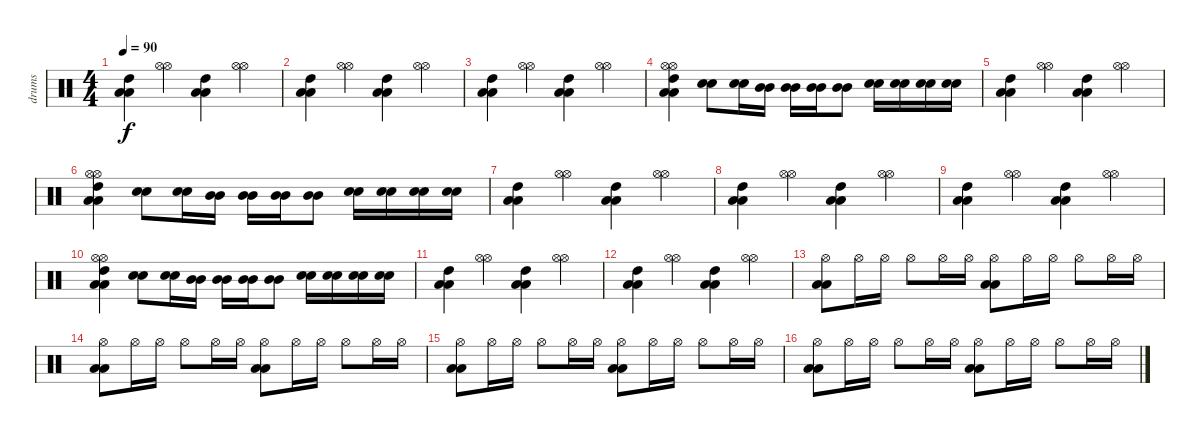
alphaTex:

\track ("drums" "drums") {instrument percussion}
\staff {score}
\articulation defaults
\ts (4 4)
\tempo 90
\clef neutral
\ks c
("High Tom (hit)" "Low Floor Tom (hit)" "Low Floor Tom (hit)").4{dy f} ("Hi-Hat (open)" "Hi-Hat (open)").4 ("High Tom (hit)" "Low Floor Tom (hit)" "Low Floor Tom (hit)").4 ("Hi-Hat (open)" "Hi-Hat (open)").4 |
("High Tom (hit)" "Low Floor Tom (hit)" "Low Floor Tom (hit)").4 ("Hi-Hat (open)" "Hi-Hat (open)").4 ("High Tom (hit)" "Low Floor Tom (hit)" "Low Floor Tom (hit)").4 ("Hi-Hat (open)" "Hi-Hat (open)").4 |
("High Tom (hit)" "Low Floor Tom (hit)" "Low Floor Tom (hit)").4 ("Hi-Hat (open)" "Hi-Hat (open)").4 ("High Tom (hit)" "Low Floor Tom (hit)" "Low Floor Tom (hit)").4 ("Hi-Hat (open)" "Hi-Hat (open)").4 |
("Hi-Hat (open)" "Hi-Hat (open)" "High Tom (hit)" "Low Floor Tom (hit)" "Low Floor Tom (hit)").4 ("Electric Snare (hit)" "Electric Snare (hit)").8 ("Electric Snare (hit)" "Electric Snare (hit)").16 ("Mid Tom (hit)" "Mid Tom (hit)").16 ("Mid Tom (hit)" "Mid Tom (hit)").16 ("Mid Tom (hit)" "Mid Tom (hit)").16 ("Mid Tom (hit)" "Mid Tom (hit)").8 ("Electric Snare (hit)" "Electric Snare (hit)").16 ("Electric Snare (hit)" "Electric Snare (hit)").16 ("Electric Snare (hit)" "Electric Snare (hit)").16 ("Electric Snare (hit)" "Electric Snare (hit)").16 |
("High Tom (hit)" "Low Floor Tom (hit)" "Low Floor Tom (hit)").4 ("Hi-Hat (open)" "Hi-Hat (open)").4 ("High Tom (hit)" "Low Floor Tom (hit)" "Low Floor Tom (hit)").4 ("Hi-Hat (open)" "Hi-Hat (open)").4 |
("Hi-Hat (open)" "Hi-Hat (open)" "High Tom (hit)" "Low Floor Tom (hit)" "Low Floor Tom (hit)").4 ("Electric Snare (hit)" "Electric Snare (hit)").8 ("Electric Snare (hit)" "Electric Snare (hit)").16 ("Mid Tom (hit)" "Mid Tom (hit)").16 ("Mid Tom (hit)" "Mid Tom (hit)").16 ("Mid Tom (hit)" "Mid Tom (hit)").16 ("Mid Tom (hit)" "Mid Tom (hit)").8 ("Electric Snare (hit)" "Electric Snare (hit)").16 ("Electric Snare (hit)" "Electric Snare (hit)").16 ("Electric Snare (hit)" "Electric Snare (hit)").16 ("Electric Snare (hit)" "Electric Snare (hit)").16 |
("High Tom (hit)" "Low Floor Tom (hit)" "Low Floor Tom (hit)").4 ("Hi-Hat (open)" "Hi-Hat (open)").4 ("High Tom (hit)" "Low Floor Tom (hit)" "Low Floor Tom (hit)").4 ("Hi-Hat (open)" "Hi-Hat (open)").4 |
("High Tom (hit)" "Low Floor Tom (hit)" "Low Floor Tom (hit)").4 ("Hi-Hat (open)" "Hi-Hat (open)").4 ("High Tom (hit)" "Low Floor Tom (hit)" "Low Floor Tom (hit)").4 ("Hi-Hat (open)" "Hi-Hat (open)").4 |
("High Tom (hit)" "Low Floor Tom (hit)" "Low Floor Tom (hit)").4 ("Hi-Hat (open)" "Hi-Hat (open)").4 ("High Tom (hit)" "Low Floor Tom (hit)" "Low Floor Tom (hit)").4 ("Hi-Hat (open)" "Hi-Hat (open)").4 |
("Hi-Hat (open)" "Hi-Hat (open)" "High Tom (hit)" "Low Floor Tom (hit)" "Low Floor Tom (hit)").4 ("Electric Snare (hit)" "Electric Snare (hit)").8 ("Electric Snare (hit)" "Electric Snare (hit)").16 ("Mid Tom (hit)" "Mid Tom (hit)").16 ("Mid Tom (hit)" "Mid Tom (hit)").16 ("Mid Tom (hit)" "Mid Tom (hit)").16 ("Mid Tom (hit)" "Mid Tom (hit)").8 ("Electric Snare (hit)" "Electric Snare (hit)").16 ("Electric Snare (hit)" "Electric Snare (hit)").16 ("Electric Snare (hit)" "Electric Snare (hit)").16 ("Electric Snare (hit)" "Electric Snare (hit)").16 |
("High Tom (hit)" "Low Floor Tom (hit)" "Low Floor Tom (hit)").4 ("Hi-Hat (open)" "Hi-Hat (open)").4 ("High Tom (hit)" "Low Floor Tom (hit)" "Low Floor Tom (hit)").4 ("Hi-Hat (open)" "Hi-Hat (open)").4 |
("High Tom (hit)" "Low Floor Tom (hit)" "Low Floor Tom (hit)").4 ("Hi-Hat (open)" "Hi-Hat (open)").4 ("High Tom (hit)" "Low Floor Tom (hit)" "Low Floor Tom (hit)").4 ("Hi-Hat (open)" "Hi-Hat (open)").4 |
("Hi-Hat (open)" "Low Floor Tom (hit)" "Low Floor Tom (hit)").8 "Hi-Hat (open)".16 "Hi-Hat (open)".16 "Hi-Hat (open)".8 "Hi-Hat (open)".16 "Hi-Hat (open)".16 ("Hi-Hat (open)" "Low Floor Tom (hit)" "Low Floor Tom (hit)").8 "Hi-Hat (open)".16 "Hi-Hat (open)".16 "Hi-Hat (open)".8 "Hi-Hat (open)".16 "Hi-Hat (open)".16 |
("Hi-Hat (open)" "Low Floor Tom (hit)" "Low Floor Tom (hit)").8 "Hi-Hat (open)".16 "Hi-Hat (open)".16 "Hi-Hat (open)".8 "Hi-Hat (open)".16 "Hi-Hat (open)".16 ("Hi-Hat (open)" "Low Floor Tom (hit)" "Low Floor Tom (hit)").8 "Hi-Hat (open)".16 "Hi-Hat (open)".16 "Hi-Hat (open)".8 "Hi-Hat (open)".16 "Hi-Hat (open)".16 |
("Hi-Hat (open)" "Low Floor Tom (hit)" "Low Floor Tom (hit)").8 "Hi-Hat (open)".16 "Hi-Hat (open)".16 "Hi-Hat (open)".8 "Hi-Hat (open)".16 "Hi-Hat (open)".16 ("Hi-Hat (open)" "Low Floor Tom (hit)" "Low Floor Tom (hit)").8 "Hi-Hat (open)".16 "Hi-Hat (open)".16 "Hi-Hat (open)".8 "Hi-Hat (open)".16 "Hi-Hat (open)".16 |
("Hi-Hat (open)" "Low Floor Tom (hit)" "Low Floor Tom (hit)").8 "Hi-Hat (open)".16 "Hi-Hat (open)".16 "Hi-Hat (open)".8 "Hi-Hat (open)".16 "Hi-Hat (open)".16 ("Hi-Hat (open)" "Low Floor Tom (hit)" "Low Floor Tom (hit)").8 "Hi-Hat (open)".16 "Hi-Hat (open)".16 "Hi-Hat (open)".8 "Hi-Hat (open)".16 "Hi-Hat (open)".16
